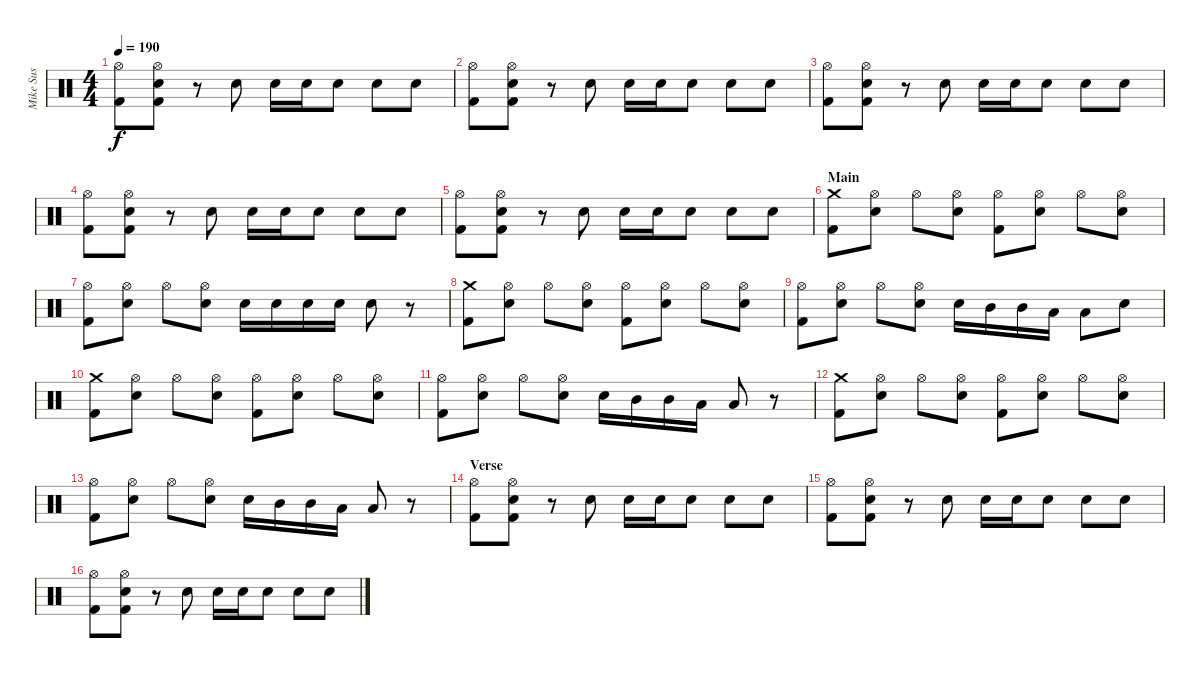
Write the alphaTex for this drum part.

\track ("Mike Sus" "Mike Sus") {instrument percussion}
\staff {score}
\articulation defaults
\ts (4 4)
\tempo 190
\clef neutral
\ks c
("Hi-Hat (open)" "Kick (hit) 2").8{dy f} ("Hi-Hat (open)" "Electric Snare (hit)" "Kick (hit) 2").8 r.8 "Electric Snare (hit)".8 "Electric Snare (hit)".16 "Electric Snare (hit)".16 "Electric Snare (hit)".8 "Electric Snare (hit)".8 "Electric Snare (hit)".8 |
("Hi-Hat (open)" "Kick (hit) 2").8 ("Hi-Hat (open)" "Electric Snare (hit)" "Kick (hit) 2").8 r.8 "Electric Snare (hit)".8 "Electric Snare (hit)".16 "Electric Snare (hit)".16 "Electric Snare (hit)".8 "Electric Snare (hit)".8 "Electric Snare (hit)".8 |
("Hi-Hat (open)" "Kick (hit) 2").8 ("Hi-Hat (open)" "Electric Snare (hit)" "Kick (hit) 2").8 r.8 "Electric Snare (hit)".8 "Electric Snare (hit)".16 "Electric Snare (hit)".16 "Electric Snare (hit)".8 "Electric Snare (hit)".8 "Electric Snare (hit)".8 |
("Hi-Hat (open)" "Kick (hit) 2").8 ("Hi-Hat (open)" "Electric Snare (hit)" "Kick (hit) 2").8 r.8 "Electric Snare (hit)".8 "Electric Snare (hit)".16 "Electric Snare (hit)".16 "Electric Snare (hit)".8 "Electric Snare (hit)".8 "Electric Snare (hit)".8 |
("Hi-Hat (open)" "Kick (hit) 2").8 ("Hi-Hat (open)" "Electric Snare (hit)" "Kick (hit) 2").8 r.8 "Electric Snare (hit)".8 "Electric Snare (hit)".16 "Electric Snare (hit)".16 "Electric Snare (hit)".8 "Electric Snare (hit)".8 "Electric Snare (hit)".8 |
\section ("" "Main")
("Crash medium (hit)" "Kick (hit) 2").8 ("Hi-Hat (open)" "Electric Snare (hit)").8 "Hi-Hat (open)".8 ("Hi-Hat (open)" "Electric Snare (hit)").8 ("Hi-Hat (open)" "Kick (hit) 2").8 ("Hi-Hat (open)" "Electric Snare (hit)").8 "Hi-Hat (open)".8 ("Hi-Hat (open)" "Electric Snare (hit)").8 |
("Hi-Hat (open)" "Kick (hit) 2").8 ("Hi-Hat (open)" "Electric Snare (hit)").8 "Hi-Hat (open)".8 ("Hi-Hat (open)" "Electric Snare (hit)").8 "Electric Snare (hit)".16 "Electric Snare (hit)".16 "Electric Snare (hit)".16 "Electric Snare (hit)".16 "Electric Snare (hit)".8 r.8 |
("Crash medium (hit)" "Kick (hit) 2").8 ("Hi-Hat (open)" "Electric Snare (hit)").8 "Hi-Hat (open)".8 ("Hi-Hat (open)" "Electric Snare (hit)").8 ("Hi-Hat (open)" "Kick (hit) 2").8 ("Hi-Hat (open)" "Electric Snare (hit)").8 "Hi-Hat (open)".8 ("Hi-Hat (open)" "Electric Snare (hit)").8 |
("Hi-Hat (open)" "Kick (hit) 2").8 ("Hi-Hat (open)" "Electric Snare (hit)").8 "Hi-Hat (open)".8 ("Hi-Hat (open)" "Electric Snare (hit)").8 "Electric Snare (hit)".16 "Mid Tom (hit)".16 "Mid Tom (hit)".16 "Low Tom (hit)".16 "Low Tom (hit)".8 "Electric Snare (hit)".8 |
("Crash medium (hit)" "Kick (hit) 2").8 ("Hi-Hat (open)" "Electric Snare (hit)").8 "Hi-Hat (open)".8 ("Hi-Hat (open)" "Electric Snare (hit)").8 ("Hi-Hat (open)" "Kick (hit) 2").8 ("Hi-Hat (open)" "Electric Snare (hit)").8 "Hi-Hat (open)".8 ("Hi-Hat (open)" "Electric Snare (hit)").8 |
("Hi-Hat (open)" "Kick (hit) 2").8 ("Hi-Hat (open)" "Electric Snare (hit)").8 "Hi-Hat (open)".8 ("Hi-Hat (open)" "Electric Snare (hit)").8 "Electric Snare (hit)".16 "Mid Tom (hit)".16 "Mid Tom (hit)".16 "Low Tom (hit)".16 "Low Tom (hit)".8 r.8 |
("Crash medium (hit)" "Kick (hit) 2").8 ("Hi-Hat (open)" "Electric Snare (hit)").8 "Hi-Hat (open)".8 ("Hi-Hat (open)" "Electric Snare (hit)").8 ("Hi-Hat (open)" "Kick (hit) 2").8 ("Hi-Hat (open)" "Electric Snare (hit)").8 "Hi-Hat (open)".8 ("Hi-Hat (open)" "Electric Snare (hit)").8 |
("Hi-Hat (open)" "Kick (hit) 2").8 ("Hi-Hat (open)" "Electric Snare (hit)").8 "Hi-Hat (open)".8 ("Hi-Hat (open)" "Electric Snare (hit)").8 "Electric Snare (hit)".16 "Mid Tom (hit)".16 "Mid Tom (hit)".16 "Low Tom (hit)".16 "Low Tom (hit)".8 r.8 |
\section ("" "Verse")
("Hi-Hat (open)" "Kick (hit) 2").8 ("Hi-Hat (open)" "Electric Snare (hit)" "Kick (hit) 2").8 r.8 "Electric Snare (hit)".8 "Electric Snare (hit)".16 "Electric Snare (hit)".16 "Electric Snare (hit)".8 "Electric Snare (hit)".8 "Electric Snare (hit)".8 |
("Hi-Hat (open)" "Kick (hit) 2").8 ("Hi-Hat (open)" "Electric Snare (hit)" "Kick (hit) 2").8 r.8 "Electric Snare (hit)".8 "Electric Snare (hit)".16 "Electric Snare (hit)".16 "Electric Snare (hit)".8 "Electric Snare (hit)".8 "Electric Snare (hit)".8 |
("Hi-Hat (open)" "Kick (hit) 2").8 ("Hi-Hat (open)" "Electric Snare (hit)" "Kick (hit) 2").8 r.8 "Electric Snare (hit)".8 "Electric Snare (hit)".16 "Electric Snare (hit)".16 "Electric Snare (hit)".8 "Electric Snare (hit)".8 "Electric Snare (hit)".8
